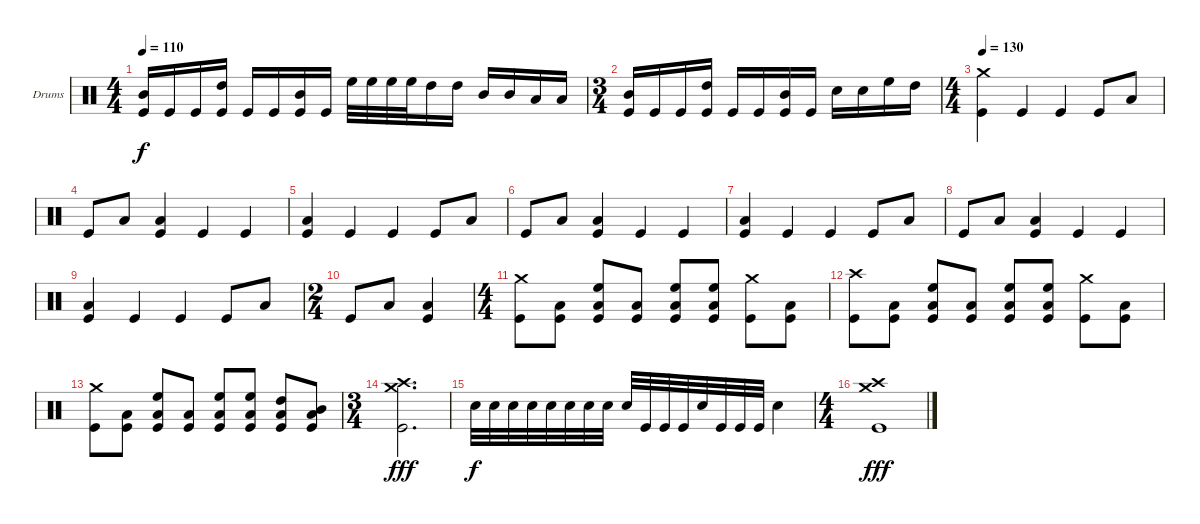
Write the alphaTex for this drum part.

\bracketExtendMode groupsimilarinstruments
\firstSystemTrackNameOrientation horizontal
\otherSystemsTrackNameOrientation horizontal
\track ("Nick Menza" "Drums") {instrument percussion}
\staff {score}
\articulation defaults
\ts (4 4)
\tempo 110
\clef neutral
\ks c
("Mid Tom (hit)" "Kick (hit)").16{dy f} "Kick (hit)".16 "Kick (hit)".16 ("High Tom (hit)" "Kick (hit)").16 "Kick (hit)".16 "Kick (hit)".16 ("Mid Tom (hit)" "Kick (hit)").16 "Kick (hit)".16 "High Floor Tom (hit)".32 "High Floor Tom (hit)".32 "High Floor Tom (hit)".32 "High Floor Tom (hit)".32 "High Tom (hit)".16 "High Tom (hit)".16 "Mid Tom (hit)".16 "Mid Tom (hit)".16 "Low Tom (hit)".16 "Low Tom (hit)".16 |
\ts (3 4)
("Mid Tom (hit)" "Kick (hit)").16 "Kick (hit)".16 "Kick (hit)".16 ("High Tom (hit)" "Kick (hit)").16 "Kick (hit)".16 "Kick (hit)".16 ("Mid Tom (hit)" "Kick (hit)").16 "Kick (hit)".16 "Snare (hit) 2".16 "Snare (hit) 2".16 "High Floor Tom (hit)".16 "High Tom (hit)".16 |
\ts (4 4)
\tempo 130
("Crash medium (hit)" "Kick (hit)").4 "Kick (hit)".4 "Kick (hit)".4 "Kick (hit)".8 "Low Tom (hit)".8 |
"Kick (hit)".8 "Low Tom (hit)".8 ("Low Tom (hit)" "Kick (hit)").4 "Kick (hit)".4 "Kick (hit)".4 |
("Low Tom (hit)" "Kick (hit)").4 "Kick (hit)".4 "Kick (hit)".4 "Kick (hit)".8 "Low Tom (hit)".8 |
"Kick (hit)".8 "Low Tom (hit)".8 ("Low Tom (hit)" "Kick (hit)").4 "Kick (hit)".4 "Kick (hit)".4 |
("Low Tom (hit)" "Kick (hit)").4 "Kick (hit)".4 "Kick (hit)".4 "Kick (hit)".8 "Low Tom (hit)".8 |
"Kick (hit)".8 "Low Tom (hit)".8 ("Low Tom (hit)" "Kick (hit)").4 "Kick (hit)".4 "Kick (hit)".4 |
("Low Tom (hit)" "Kick (hit)").4 "Kick (hit)".4 "Kick (hit)".4 "Kick (hit)".8 "Low Tom (hit)".8 |
\ts (2 4)
"Kick (hit)".8 "Low Tom (hit)".8 ("Low Tom (hit)" "Kick (hit)").4 |
\ts (4 4)
("Crash medium (hit)" "Kick (hit)").8 ("Low Tom (hit)" "Kick (hit)").8 ("High Floor Tom (hit)" "Low Tom (hit)" "Kick (hit)").8 ("Low Tom (hit)" "Kick (hit)").8 ("High Floor Tom (hit)" "Low Tom (hit)" "Kick (hit)").8 ("High Floor Tom (hit)" "Low Tom (hit)" "Kick (hit)").8 ("Crash medium (hit)" "Kick (hit)").8 ("Low Tom (hit)" "Kick (hit)").8 |
("Crash high (hit)" "Kick (hit)").8 ("Low Tom (hit)" "Kick (hit)").8 ("High Floor Tom (hit)" "Low Tom (hit)" "Kick (hit)").8 ("Low Tom (hit)" "Kick (hit)").8 ("High Floor Tom (hit)" "Low Tom (hit)" "Kick (hit)").8 ("High Floor Tom (hit)" "Low Tom (hit)" "Kick (hit)").8 ("Crash medium (hit)" "Kick (hit)").8 ("Low Tom (hit)" "Kick (hit)").8 |
("Crash medium (hit)" "Kick (hit)").8 ("Low Tom (hit)" "Kick (hit)").8 ("High Floor Tom (hit)" "Low Tom (hit)" "Kick (hit)").8 ("Low Tom (hit)" "Kick (hit)").8 ("High Floor Tom (hit)" "Low Tom (hit)" "Kick (hit)").8 ("High Floor Tom (hit)" "Low Tom (hit)" "Kick (hit)").8 ("High Tom (hit)" "Low Tom (hit)" "Kick (hit)").8 ("Mid Tom (hit)" "Low Tom (hit)" "Kick (hit)").8 |
\ts (3 4)
("Crash high (hit)" "Crash medium (hit)" "Kick (hit)").2{d dy fff} |
"Snare (hit) 2".32{dy f} "Snare (hit) 2".32 "Snare (hit) 2".32 "Snare (hit) 2".32 "Snare (hit) 2".32 "Snare (hit) 2".32 "Snare (hit) 2".32 "Snare (hit) 2".32 "Snare (hit) 2".32 "Kick (hit)".32 "Kick (hit)".32 "Kick (hit)".32 "Snare (hit) 2".32 "Kick (hit)".32 "Kick (hit)".32 "Kick (hit)".32 "Snare (hit) 2".4 |
\ts (4 4)
("Crash high (hit)" "Crash medium (hit)" "Kick (hit)").1{dy fff}
